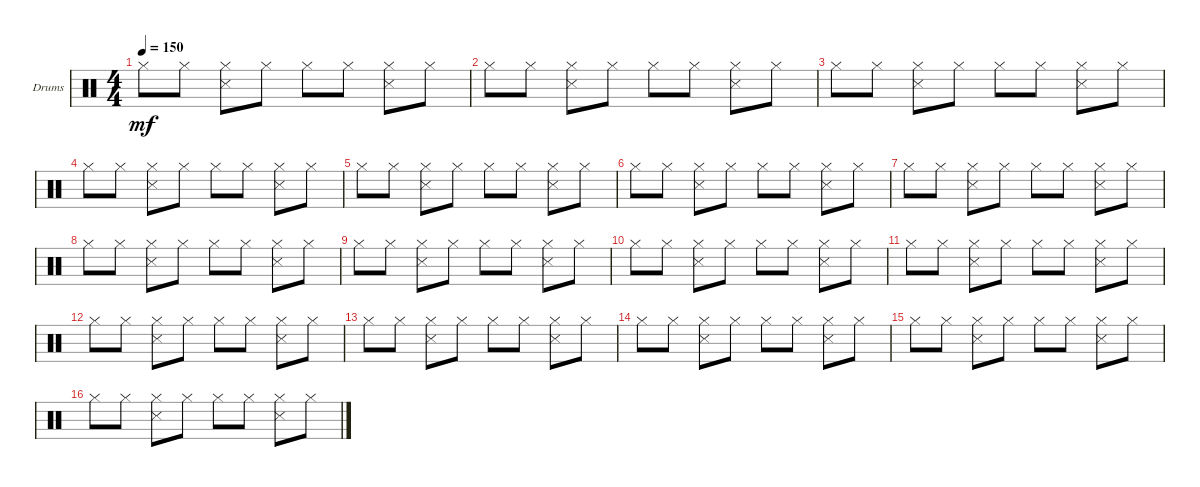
\defaultSystemsLayout 4
\bracketExtendMode groupsimilarinstruments
\firstSystemTrackNameOrientation horizontal
\otherSystemsTrackNameOrientation horizontal
\track ("Drums" "Drums") {instrument percussion}
\staff {score}
\articulation defaults
\ts (4 4)
\tempo 150
\clef neutral
\ks c "Hi-Hat (closed)".8{dy mf} "Hi-Hat (closed)".8
("Hi-Hat (closed)" "Snare (side stick) 3").8 "Hi-Hat (closed)".8 "Hi-Hat (closed)".8 "Hi-Hat (closed)".8 ("Hi-Hat (closed)" "Snare (side stick) 3").8 "Hi-Hat (closed)".8 |
"Hi-Hat (closed)".8 "Hi-Hat (closed)".8 ("Hi-Hat (closed)" "Snare (side stick) 3").8 "Hi-Hat (closed)".8 "Hi-Hat (closed)".8 "Hi-Hat (closed)".8 ("Hi-Hat (closed)" "Snare (side stick) 3").8 "Hi-Hat (closed)".8 |
"Hi-Hat (closed)".8 "Hi-Hat (closed)".8 ("Hi-Hat (closed)" "Snare (side stick) 3").8 "Hi-Hat (closed)".8 "Hi-Hat (closed)".8 "Hi-Hat (closed)".8 ("Hi-Hat (closed)" "Snare (side stick) 3").8 "Hi-Hat (closed)".8 |
"Hi-Hat (closed)".8 "Hi-Hat (closed)".8 ("Hi-Hat (closed)" "Snare (side stick) 3").8 "Hi-Hat (closed)".8 "Hi-Hat (closed)".8 "Hi-Hat (closed)".8 ("Hi-Hat (closed)" "Snare (side stick) 3").8 "Hi-Hat (closed)".8 |
"Hi-Hat (closed)".8 "Hi-Hat (closed)".8 ("Hi-Hat (closed)" "Snare (side stick) 3").8 "Hi-Hat (closed)".8 "Hi-Hat (closed)".8 "Hi-Hat (closed)".8 ("Hi-Hat (closed)" "Snare (side stick) 3").8 "Hi-Hat (closed)".8 |
"Hi-Hat (closed)".8 "Hi-Hat (closed)".8 ("Hi-Hat (closed)" "Snare (side stick) 3").8 "Hi-Hat (closed)".8 "Hi-Hat (closed)".8 "Hi-Hat (closed)".8 ("Hi-Hat (closed)" "Snare (side stick) 3").8 "Hi-Hat (closed)".8 |
"Hi-Hat (closed)".8 "Hi-Hat (closed)".8 ("Hi-Hat (closed)" "Snare (side stick) 3").8 "Hi-Hat (closed)".8 "Hi-Hat (closed)".8 "Hi-Hat (closed)".8 ("Hi-Hat (closed)" "Snare (side stick) 3").8 "Hi-Hat (closed)".8 |
"Hi-Hat (closed)".8 "Hi-Hat (closed)".8 ("Hi-Hat (closed)" "Snare (side stick) 3").8 "Hi-Hat (closed)".8 "Hi-Hat (closed)".8 "Hi-Hat (closed)".8 ("Hi-Hat (closed)" "Snare (side stick) 3").8 "Hi-Hat (closed)".8 |
"Hi-Hat (closed)".8 "Hi-Hat (closed)".8 ("Hi-Hat (closed)" "Snare (side stick) 3").8 "Hi-Hat (closed)".8 "Hi-Hat (closed)".8 "Hi-Hat (closed)".8 ("Hi-Hat (closed)" "Snare (side stick) 3").8 "Hi-Hat (closed)".8 |
"Hi-Hat (closed)".8 "Hi-Hat (closed)".8 ("Hi-Hat (closed)" "Snare (side stick) 3").8 "Hi-Hat (closed)".8 "Hi-Hat (closed)".8 "Hi-Hat (closed)".8 ("Hi-Hat (closed)" "Snare (side stick) 3").8 "Hi-Hat (closed)".8 |
"Hi-Hat (closed)".8 "Hi-Hat (closed)".8 ("Hi-Hat (closed)" "Snare (side stick) 3").8 "Hi-Hat (closed)".8 "Hi-Hat (closed)".8 "Hi-Hat (closed)".8 ("Hi-Hat (closed)" "Snare (side stick) 3").8 "Hi-Hat (closed)".8 |
"Hi-Hat (closed)".8 "Hi-Hat (closed)".8 ("Hi-Hat (closed)" "Snare (side stick) 3").8 "Hi-Hat (closed)".8 "Hi-Hat (closed)".8 "Hi-Hat (closed)".8 ("Hi-Hat (closed)" "Snare (side stick) 3").8 "Hi-Hat (closed)".8 |
"Hi-Hat (closed)".8 "Hi-Hat (closed)".8 ("Hi-Hat (closed)" "Snare (side stick) 3").8 "Hi-Hat (closed)".8 "Hi-Hat (closed)".8 "Hi-Hat (closed)".8 ("Hi-Hat (closed)" "Snare (side stick) 3").8 "Hi-Hat (closed)".8 |
"Hi-Hat (closed)".8 "Hi-Hat (closed)".8 ("Hi-Hat (closed)" "Snare (side stick) 3").8 "Hi-Hat (closed)".8 "Hi-Hat (closed)".8 "Hi-Hat (closed)".8 ("Hi-Hat (closed)" "Snare (side stick) 3").8 "Hi-Hat (closed)".8 |
"Hi-Hat (closed)".8 "Hi-Hat (closed)".8 ("Hi-Hat (closed)" "Snare (side stick) 3").8 "Hi-Hat (closed)".8 "Hi-Hat (closed)".8 "Hi-Hat (closed)".8 ("Hi-Hat (closed)" "Snare (side stick) 3").8 "Hi-Hat (closed)".8 |
"Hi-Hat (closed)".8 "Hi-Hat (closed)".8 ("Hi-Hat (closed)" "Snare (side stick) 3").8 "Hi-Hat (closed)".8 "Hi-Hat (closed)".8 "Hi-Hat (closed)".8 ("Hi-Hat (closed)" "Snare (side stick) 3").8 "Hi-Hat (closed)".8
